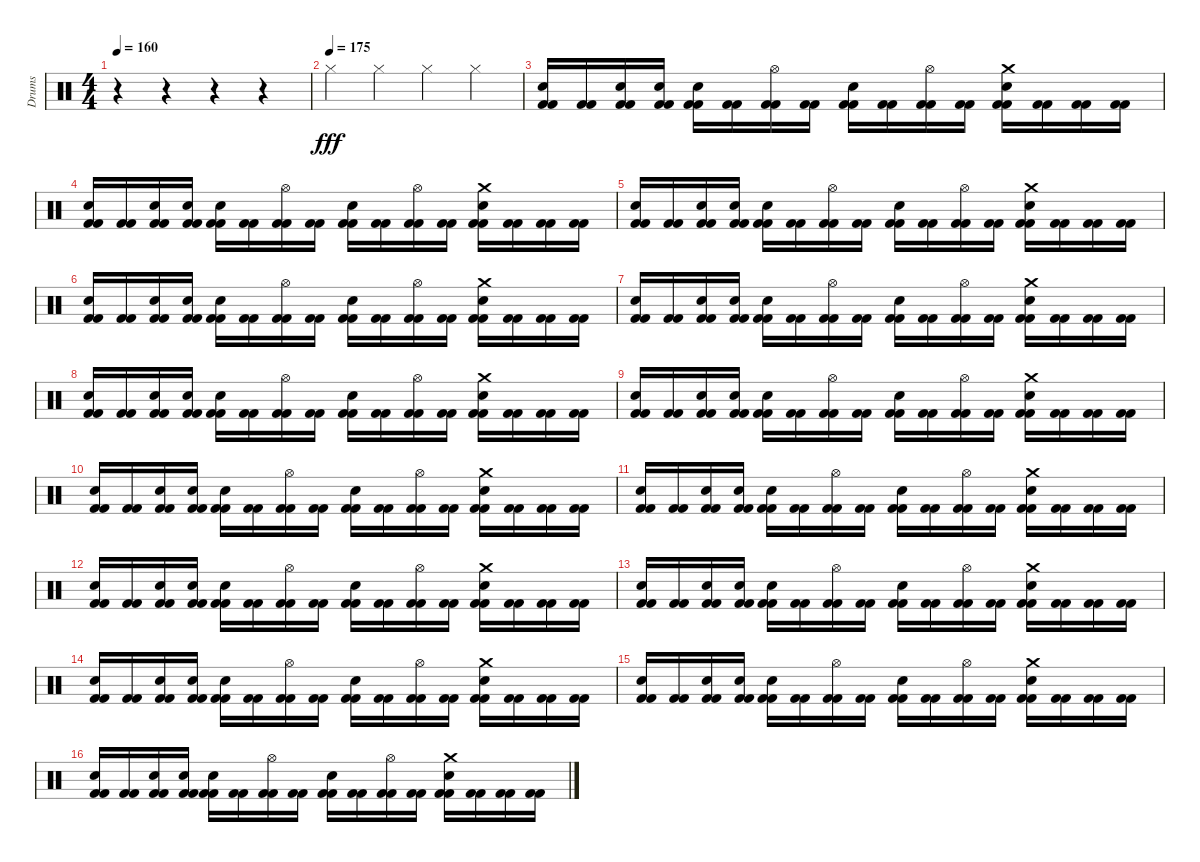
\track ("Drums" "Drums") {instrument percussion}
\staff {score}
\articulation defaults
\ts (4 4)
\tempo 160
\clef neutral
\ks c
r.4{dy fff} r.4 r.4 r.4 |
\tempo (175)
"Hi-Hat (closed)".4 "Hi-Hat (closed)".4 "Hi-Hat (closed)".4 "Hi-Hat (closed)".4 |
("Electric Snare (hit)" "Kick (hit) 2" "Kick (hit) 2").16 ("Kick (hit) 2" "Kick (hit) 2").16 ("Electric Snare (hit)" "Kick (hit) 2" "Kick (hit) 2").16 ("Electric Snare (hit)" "Kick (hit) 2" "Kick (hit) 2").16 ("Electric Snare (hit)" "Kick (hit) 2" "Kick (hit) 2").16 ("Kick (hit) 2" "Kick (hit) 2").16 ("Hi-Hat (open)" "Kick (hit) 2" "Kick (hit) 2").16 ("Kick (hit) 2" "Kick (hit) 2").16 ("Electric Snare (hit)" "Kick (hit) 2" "Kick (hit) 2").16 ("Kick (hit) 2" "Kick (hit) 2").16 ("Hi-Hat (open)" "Kick (hit) 2" "Kick (hit) 2").16 ("Kick (hit) 2" "Kick (hit) 2").16 ("Crash medium (hit)" "Electric Snare (hit)" "Kick (hit) 2" "Kick (hit) 2").16 ("Kick (hit) 2" "Kick (hit) 2").16 ("Kick (hit) 2" "Kick (hit) 2").16 ("Kick (hit) 2" "Kick (hit) 2").16 |
("Electric Snare (hit)" "Kick (hit) 2" "Kick (hit) 2").16 ("Kick (hit) 2" "Kick (hit) 2").16 ("Electric Snare (hit)" "Kick (hit) 2" "Kick (hit) 2").16 ("Electric Snare (hit)" "Kick (hit) 2" "Kick (hit) 2").16 ("Electric Snare (hit)" "Kick (hit) 2" "Kick (hit) 2").16 ("Kick (hit) 2" "Kick (hit) 2").16 ("Hi-Hat (open)" "Kick (hit) 2" "Kick (hit) 2").16 ("Kick (hit) 2" "Kick (hit) 2").16 ("Electric Snare (hit)" "Kick (hit) 2" "Kick (hit) 2").16 ("Kick (hit) 2" "Kick (hit) 2").16 ("Hi-Hat (open)" "Kick (hit) 2" "Kick (hit) 2").16 ("Kick (hit) 2" "Kick (hit) 2").16 ("Crash medium (hit)" "Electric Snare (hit)" "Kick (hit) 2" "Kick (hit) 2").16 ("Kick (hit) 2" "Kick (hit) 2").16 ("Kick (hit) 2" "Kick (hit) 2").16 ("Kick (hit) 2" "Kick (hit) 2").16 |
("Electric Snare (hit)" "Kick (hit) 2" "Kick (hit) 2").16 ("Kick (hit) 2" "Kick (hit) 2").16 ("Electric Snare (hit)" "Kick (hit) 2" "Kick (hit) 2").16 ("Electric Snare (hit)" "Kick (hit) 2" "Kick (hit) 2").16 ("Electric Snare (hit)" "Kick (hit) 2" "Kick (hit) 2").16 ("Kick (hit) 2" "Kick (hit) 2").16 ("Hi-Hat (open)" "Kick (hit) 2" "Kick (hit) 2").16 ("Kick (hit) 2" "Kick (hit) 2").16 ("Electric Snare (hit)" "Kick (hit) 2" "Kick (hit) 2").16 ("Kick (hit) 2" "Kick (hit) 2").16 ("Hi-Hat (open)" "Kick (hit) 2" "Kick (hit) 2").16 ("Kick (hit) 2" "Kick (hit) 2").16 ("Crash medium (hit)" "Electric Snare (hit)" "Kick (hit) 2" "Kick (hit) 2").16 ("Kick (hit) 2" "Kick (hit) 2").16 ("Kick (hit) 2" "Kick (hit) 2").16 ("Kick (hit) 2" "Kick (hit) 2").16 |
("Electric Snare (hit)" "Kick (hit) 2" "Kick (hit) 2").16 ("Kick (hit) 2" "Kick (hit) 2").16 ("Electric Snare (hit)" "Kick (hit) 2" "Kick (hit) 2").16 ("Electric Snare (hit)" "Kick (hit) 2" "Kick (hit) 2").16 ("Electric Snare (hit)" "Kick (hit) 2" "Kick (hit) 2").16 ("Kick (hit) 2" "Kick (hit) 2").16 ("Hi-Hat (open)" "Kick (hit) 2" "Kick (hit) 2").16 ("Kick (hit) 2" "Kick (hit) 2").16 ("Electric Snare (hit)" "Kick (hit) 2" "Kick (hit) 2").16 ("Kick (hit) 2" "Kick (hit) 2").16 ("Hi-Hat (open)" "Kick (hit) 2" "Kick (hit) 2").16 ("Kick (hit) 2" "Kick (hit) 2").16 ("Crash medium (hit)" "Electric Snare (hit)" "Kick (hit) 2" "Kick (hit) 2").16 ("Kick (hit) 2" "Kick (hit) 2").16 ("Kick (hit) 2" "Kick (hit) 2").16 ("Kick (hit) 2" "Kick (hit) 2").16 |
("Electric Snare (hit)" "Kick (hit) 2" "Kick (hit) 2").16 ("Kick (hit) 2" "Kick (hit) 2").16 ("Electric Snare (hit)" "Kick (hit) 2" "Kick (hit) 2").16 ("Electric Snare (hit)" "Kick (hit) 2" "Kick (hit) 2").16 ("Electric Snare (hit)" "Kick (hit) 2" "Kick (hit) 2").16 ("Kick (hit) 2" "Kick (hit) 2").16 ("Hi-Hat (open)" "Kick (hit) 2" "Kick (hit) 2").16 ("Kick (hit) 2" "Kick (hit) 2").16 ("Electric Snare (hit)" "Kick (hit) 2" "Kick (hit) 2").16 ("Kick (hit) 2" "Kick (hit) 2").16 ("Hi-Hat (open)" "Kick (hit) 2" "Kick (hit) 2").16 ("Kick (hit) 2" "Kick (hit) 2").16 ("Crash medium (hit)" "Electric Snare (hit)" "Kick (hit) 2" "Kick (hit) 2").16 ("Kick (hit) 2" "Kick (hit) 2").16 ("Kick (hit) 2" "Kick (hit) 2").16 ("Kick (hit) 2" "Kick (hit) 2").16 |
("Electric Snare (hit)" "Kick (hit) 2" "Kick (hit) 2").16 ("Kick (hit) 2" "Kick (hit) 2").16 ("Electric Snare (hit)" "Kick (hit) 2" "Kick (hit) 2").16 ("Electric Snare (hit)" "Kick (hit) 2" "Kick (hit) 2").16 ("Electric Snare (hit)" "Kick (hit) 2" "Kick (hit) 2").16 ("Kick (hit) 2" "Kick (hit) 2").16 ("Hi-Hat (open)" "Kick (hit) 2" "Kick (hit) 2").16 ("Kick (hit) 2" "Kick (hit) 2").16 ("Electric Snare (hit)" "Kick (hit) 2" "Kick (hit) 2").16 ("Kick (hit) 2" "Kick (hit) 2").16 ("Hi-Hat (open)" "Kick (hit) 2" "Kick (hit) 2").16 ("Kick (hit) 2" "Kick (hit) 2").16 ("Crash medium (hit)" "Electric Snare (hit)" "Kick (hit) 2" "Kick (hit) 2").16 ("Kick (hit) 2" "Kick (hit) 2").16 ("Kick (hit) 2" "Kick (hit) 2").16 ("Kick (hit) 2" "Kick (hit) 2").16 |
("Electric Snare (hit)" "Kick (hit) 2" "Kick (hit) 2").16 ("Kick (hit) 2" "Kick (hit) 2").16 ("Electric Snare (hit)" "Kick (hit) 2" "Kick (hit) 2").16 ("Electric Snare (hit)" "Kick (hit) 2" "Kick (hit) 2").16 ("Electric Snare (hit)" "Kick (hit) 2" "Kick (hit) 2").16 ("Kick (hit) 2" "Kick (hit) 2").16 ("Hi-Hat (open)" "Kick (hit) 2" "Kick (hit) 2").16 ("Kick (hit) 2" "Kick (hit) 2").16 ("Electric Snare (hit)" "Kick (hit) 2" "Kick (hit) 2").16 ("Kick (hit) 2" "Kick (hit) 2").16 ("Hi-Hat (open)" "Kick (hit) 2" "Kick (hit) 2").16 ("Kick (hit) 2" "Kick (hit) 2").16 ("Crash medium (hit)" "Electric Snare (hit)" "Kick (hit) 2" "Kick (hit) 2").16 ("Kick (hit) 2" "Kick (hit) 2").16 ("Kick (hit) 2" "Kick (hit) 2").16 ("Kick (hit) 2" "Kick (hit) 2").16 |
("Electric Snare (hit)" "Kick (hit) 2" "Kick (hit) 2").16 ("Kick (hit) 2" "Kick (hit) 2").16 ("Electric Snare (hit)" "Kick (hit) 2" "Kick (hit) 2").16 ("Electric Snare (hit)" "Kick (hit) 2" "Kick (hit) 2").16 ("Electric Snare (hit)" "Kick (hit) 2" "Kick (hit) 2").16 ("Kick (hit) 2" "Kick (hit) 2").16 ("Hi-Hat (open)" "Kick (hit) 2" "Kick (hit) 2").16 ("Kick (hit) 2" "Kick (hit) 2").16 ("Electric Snare (hit)" "Kick (hit) 2" "Kick (hit) 2").16 ("Kick (hit) 2" "Kick (hit) 2").16 ("Hi-Hat (open)" "Kick (hit) 2" "Kick (hit) 2").16 ("Kick (hit) 2" "Kick (hit) 2").16 ("Crash medium (hit)" "Electric Snare (hit)" "Kick (hit) 2" "Kick (hit) 2").16 ("Kick (hit) 2" "Kick (hit) 2").16 ("Kick (hit) 2" "Kick (hit) 2").16 ("Kick (hit) 2" "Kick (hit) 2").16 |
("Electric Snare (hit)" "Kick (hit) 2" "Kick (hit) 2").16 ("Kick (hit) 2" "Kick (hit) 2").16 ("Electric Snare (hit)" "Kick (hit) 2" "Kick (hit) 2").16 ("Electric Snare (hit)" "Kick (hit) 2" "Kick (hit) 2").16 ("Electric Snare (hit)" "Kick (hit) 2" "Kick (hit) 2").16 ("Kick (hit) 2" "Kick (hit) 2").16 ("Hi-Hat (open)" "Kick (hit) 2" "Kick (hit) 2").16 ("Kick (hit) 2" "Kick (hit) 2").16 ("Electric Snare (hit)" "Kick (hit) 2" "Kick (hit) 2").16 ("Kick (hit) 2" "Kick (hit) 2").16 ("Hi-Hat (open)" "Kick (hit) 2" "Kick (hit) 2").16 ("Kick (hit) 2" "Kick (hit) 2").16 ("Crash medium (hit)" "Electric Snare (hit)" "Kick (hit) 2" "Kick (hit) 2").16 ("Kick (hit) 2" "Kick (hit) 2").16 ("Kick (hit) 2" "Kick (hit) 2").16 ("Kick (hit) 2" "Kick (hit) 2").16 |
("Electric Snare (hit)" "Kick (hit) 2" "Kick (hit) 2").16 ("Kick (hit) 2" "Kick (hit) 2").16 ("Electric Snare (hit)" "Kick (hit) 2" "Kick (hit) 2").16 ("Electric Snare (hit)" "Kick (hit) 2" "Kick (hit) 2").16 ("Electric Snare (hit)" "Kick (hit) 2" "Kick (hit) 2").16 ("Kick (hit) 2" "Kick (hit) 2").16 ("Hi-Hat (open)" "Kick (hit) 2" "Kick (hit) 2").16 ("Kick (hit) 2" "Kick (hit) 2").16 ("Electric Snare (hit)" "Kick (hit) 2" "Kick (hit) 2").16 ("Kick (hit) 2" "Kick (hit) 2").16 ("Hi-Hat (open)" "Kick (hit) 2" "Kick (hit) 2").16 ("Kick (hit) 2" "Kick (hit) 2").16 ("Crash medium (hit)" "Electric Snare (hit)" "Kick (hit) 2" "Kick (hit) 2").16 ("Kick (hit) 2" "Kick (hit) 2").16 ("Kick (hit) 2" "Kick (hit) 2").16 ("Kick (hit) 2" "Kick (hit) 2").16 |
("Electric Snare (hit)" "Kick (hit) 2" "Kick (hit) 2").16 ("Kick (hit) 2" "Kick (hit) 2").16 ("Electric Snare (hit)" "Kick (hit) 2" "Kick (hit) 2").16 ("Electric Snare (hit)" "Kick (hit) 2" "Kick (hit) 2").16 ("Electric Snare (hit)" "Kick (hit) 2" "Kick (hit) 2").16 ("Kick (hit) 2" "Kick (hit) 2").16 ("Hi-Hat (open)" "Kick (hit) 2" "Kick (hit) 2").16 ("Kick (hit) 2" "Kick (hit) 2").16 ("Electric Snare (hit)" "Kick (hit) 2" "Kick (hit) 2").16 ("Kick (hit) 2" "Kick (hit) 2").16 ("Hi-Hat (open)" "Kick (hit) 2" "Kick (hit) 2").16 ("Kick (hit) 2" "Kick (hit) 2").16 ("Crash medium (hit)" "Electric Snare (hit)" "Kick (hit) 2" "Kick (hit) 2").16 ("Kick (hit) 2" "Kick (hit) 2").16 ("Kick (hit) 2" "Kick (hit) 2").16 ("Kick (hit) 2" "Kick (hit) 2").16 |
("Electric Snare (hit)" "Kick (hit) 2" "Kick (hit) 2").16 ("Kick (hit) 2" "Kick (hit) 2").16 ("Electric Snare (hit)" "Kick (hit) 2" "Kick (hit) 2").16 ("Electric Snare (hit)" "Kick (hit) 2" "Kick (hit) 2").16 ("Electric Snare (hit)" "Kick (hit) 2" "Kick (hit) 2").16 ("Kick (hit) 2" "Kick (hit) 2").16 ("Hi-Hat (open)" "Kick (hit) 2" "Kick (hit) 2").16 ("Kick (hit) 2" "Kick (hit) 2").16 ("Electric Snare (hit)" "Kick (hit) 2" "Kick (hit) 2").16 ("Kick (hit) 2" "Kick (hit) 2").16 ("Hi-Hat (open)" "Kick (hit) 2" "Kick (hit) 2").16 ("Kick (hit) 2" "Kick (hit) 2").16 ("Crash medium (hit)" "Electric Snare (hit)" "Kick (hit) 2" "Kick (hit) 2").16 ("Kick (hit) 2" "Kick (hit) 2").16 ("Kick (hit) 2" "Kick (hit) 2").16 ("Kick (hit) 2" "Kick (hit) 2").16 |
("Electric Snare (hit)" "Kick (hit) 2" "Kick (hit) 2").16 ("Kick (hit) 2" "Kick (hit) 2").16 ("Electric Snare (hit)" "Kick (hit) 2" "Kick (hit) 2").16 ("Electric Snare (hit)" "Kick (hit) 2" "Kick (hit) 2").16 ("Electric Snare (hit)" "Kick (hit) 2" "Kick (hit) 2").16 ("Kick (hit) 2" "Kick (hit) 2").16 ("Hi-Hat (open)" "Kick (hit) 2" "Kick (hit) 2").16 ("Kick (hit) 2" "Kick (hit) 2").16 ("Electric Snare (hit)" "Kick (hit) 2" "Kick (hit) 2").16 ("Kick (hit) 2" "Kick (hit) 2").16 ("Hi-Hat (open)" "Kick (hit) 2" "Kick (hit) 2").16 ("Kick (hit) 2" "Kick (hit) 2").16 ("Crash medium (hit)" "Electric Snare (hit)" "Kick (hit) 2" "Kick (hit) 2").16 ("Kick (hit) 2" "Kick (hit) 2").16 ("Kick (hit) 2" "Kick (hit) 2").16 ("Kick (hit) 2" "Kick (hit) 2").16 |
("Electric Snare (hit)" "Kick (hit) 2" "Kick (hit) 2").16 ("Kick (hit) 2" "Kick (hit) 2").16 ("Electric Snare (hit)" "Kick (hit) 2" "Kick (hit) 2").16 ("Electric Snare (hit)" "Kick (hit) 2" "Kick (hit) 2").16 ("Electric Snare (hit)" "Kick (hit) 2" "Kick (hit) 2").16 ("Kick (hit) 2" "Kick (hit) 2").16 ("Hi-Hat (open)" "Kick (hit) 2" "Kick (hit) 2").16 ("Kick (hit) 2" "Kick (hit) 2").16 ("Electric Snare (hit)" "Kick (hit) 2" "Kick (hit) 2").16 ("Kick (hit) 2" "Kick (hit) 2").16 ("Hi-Hat (open)" "Kick (hit) 2" "Kick (hit) 2").16 ("Kick (hit) 2" "Kick (hit) 2").16 ("Crash medium (hit)" "Electric Snare (hit)" "Kick (hit) 2" "Kick (hit) 2").16 ("Kick (hit) 2" "Kick (hit) 2").16 ("Kick (hit) 2" "Kick (hit) 2").16 ("Kick (hit) 2" "Kick (hit) 2").16
